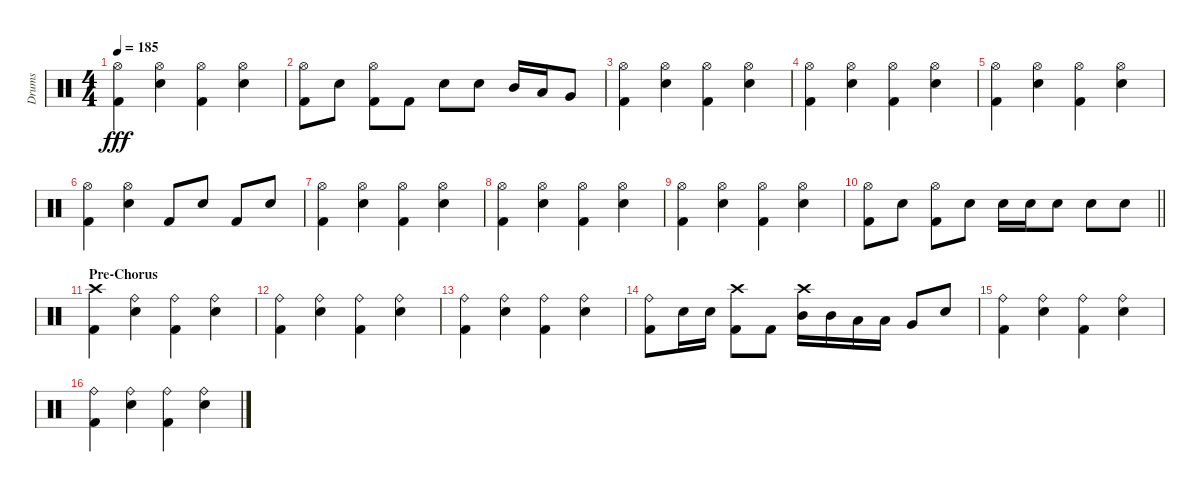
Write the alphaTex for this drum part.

\track ("Drums" "Drums") {instrument percussion}
\staff {score}
\articulation defaults
\ts (4 4)
\tempo 185
\clef neutral
\ks c
("Hi-Hat (open)" "Kick (hit) 2").4{dy fff} ("Hi-Hat (open)" "Electric Snare (hit)").4 ("Hi-Hat (open)" "Kick (hit) 2").4 ("Hi-Hat (open)" "Electric Snare (hit)").4 |
("Hi-Hat (open)" "Kick (hit) 2").8 "Electric Snare (hit)".8 ("Hi-Hat (open)" "Kick (hit) 2").8 "Kick (hit) 2".8 "Electric Snare (hit)".8 "Electric Snare (hit)".8 "Mid Tom (hit)".16 "Low Tom (hit)".16 "Very Low Tom (hit)".8 |
("Hi-Hat (open)" "Kick (hit) 2").4 ("Hi-Hat (open)" "Electric Snare (hit)").4 ("Hi-Hat (open)" "Kick (hit) 2").4 ("Hi-Hat (open)" "Electric Snare (hit)").4 |
("Hi-Hat (open)" "Kick (hit) 2").4 ("Hi-Hat (open)" "Electric Snare (hit)").4 ("Hi-Hat (open)" "Kick (hit) 2").4 ("Hi-Hat (open)" "Electric Snare (hit)").4 |
("Hi-Hat (open)" "Kick (hit) 2").4 ("Hi-Hat (open)" "Electric Snare (hit)").4 ("Hi-Hat (open)" "Kick (hit) 2").4 ("Hi-Hat (open)" "Electric Snare (hit)").4 |
("Hi-Hat (open)" "Kick (hit) 2").4 ("Hi-Hat (open)" "Electric Snare (hit)").4 "Kick (hit) 2".8 "Electric Snare (hit)".8 "Kick (hit) 2".8 "Electric Snare (hit)".8 |
("Hi-Hat (open)" "Kick (hit) 2").4 ("Hi-Hat (open)" "Electric Snare (hit)").4 ("Hi-Hat (open)" "Kick (hit) 2").4 ("Hi-Hat (open)" "Electric Snare (hit)").4 |
("Hi-Hat (open)" "Kick (hit) 2").4 ("Hi-Hat (open)" "Electric Snare (hit)").4 ("Hi-Hat (open)" "Kick (hit) 2").4 ("Hi-Hat (open)" "Electric Snare (hit)").4 |
("Hi-Hat (open)" "Kick (hit) 2").4 ("Hi-Hat (open)" "Electric Snare (hit)").4 ("Hi-Hat (open)" "Kick (hit) 2").4 ("Hi-Hat (open)" "Electric Snare (hit)").4 |
\barLineRight lightlight
("Hi-Hat (open)" "Kick (hit) 2").8 "Electric Snare (hit)".8 ("Hi-Hat (open)" "Kick (hit) 2").8 "Electric Snare (hit)".8 "Electric Snare (hit)".16 "Electric Snare (hit)".16 "Electric Snare (hit)".8 "Electric Snare (hit)".8 "Electric Snare (hit)".8 |
\section ("" "Pre-Chorus")
("Crash high (hit)" "Kick (hit) 2").4 ("Ride (bell)" "Electric Snare (hit)").4 ("Ride (bell)" "Kick (hit) 2").4 ("Ride (bell)" "Electric Snare (hit)").4 |
("Ride (bell)" "Kick (hit) 2").4 ("Ride (bell)" "Electric Snare (hit)").4 ("Ride (bell)" "Kick (hit) 2").4 ("Ride (bell)" "Electric Snare (hit)").4 |
("Ride (bell)" "Kick (hit) 2").4 ("Ride (bell)" "Electric Snare (hit)").4 ("Ride (bell)" "Kick (hit) 2").4 ("Ride (bell)" "Electric Snare (hit)").4 |
("Ride (bell)" "Kick (hit) 2").8 "Electric Snare (hit)".16 "Electric Snare (hit)".16 ("Crash high (hit)" "Kick (hit) 2").8 "Kick (hit) 2".8 ("Crash high (hit)" "Mid Tom (hit)").16 "Mid Tom (hit)".16 "Low Tom (hit)".16 "Low Tom (hit)".16 "Very Low Tom (hit)".8 "Electric Snare (hit)".8 |
("Ride (bell)" "Kick (hit) 2").4 ("Ride (bell)" "Electric Snare (hit)").4 ("Ride (bell)" "Kick (hit) 2").4 ("Ride (bell)" "Electric Snare (hit)").4 |
("Ride (bell)" "Kick (hit) 2").4 ("Ride (bell)" "Electric Snare (hit)").4 ("Ride (bell)" "Kick (hit) 2").4 ("Ride (bell)" "Electric Snare (hit)").4
